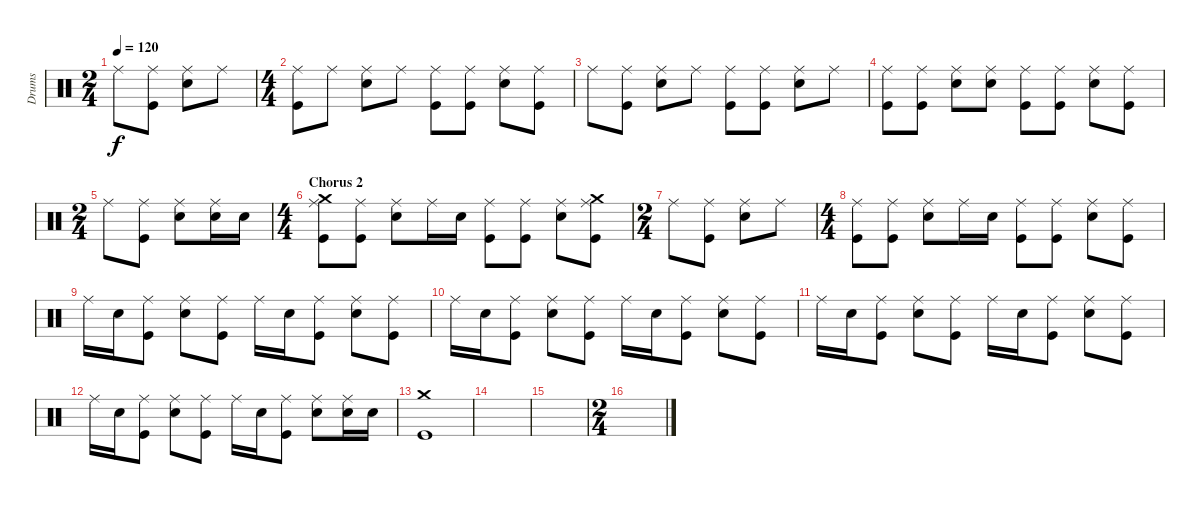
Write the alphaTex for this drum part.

\track ("Drums" "Drums") {instrument percussion}
\staff {score}
\articulation defaults
\ts (2 4)
\tempo 120
\clef neutral
\ks c "Ride (middle)".8{dy f}
("Ride (middle)" "Kick (hit)").8 ("Ride (middle)" "Snare (hit) 2").8 "Ride (middle)".8 |
\ts (4 4)
("Ride (middle)" "Kick (hit)").8 "Ride (middle)".8 ("Ride (middle)" "Snare (hit) 2").8 "Ride (middle)".8 ("Ride (middle)" "Kick (hit)").8 ("Ride (middle)" "Kick (hit)").8 ("Ride (middle)" "Snare (hit) 2").8 ("Ride (middle)" "Kick (hit)").8 |
"Ride (middle)".8 ("Ride (middle)" "Kick (hit)").8 ("Ride (middle)" "Snare (hit) 2").8 "Ride (middle)".8 ("Ride (middle)" "Kick (hit)").8 ("Ride (middle)" "Kick (hit)").8 ("Ride (middle)" "Snare (hit) 2").8 "Ride (middle)".8 |
("Ride (middle)" "Kick (hit)").8 ("Ride (middle)" "Kick (hit)").8 ("Ride (middle)" "Snare (hit) 2").8 ("Ride (middle)" "Snare (hit) 2").8 ("Ride (middle)" "Kick (hit)").8 ("Ride (middle)" "Kick (hit)").8 ("Ride (middle)" "Snare (hit) 2").8 ("Ride (middle)" "Kick (hit)").8 |
\ts (2 4)
"Ride (middle)".8 ("Ride (middle)" "Kick (hit)").8 ("Ride (middle)" "Snare (hit) 2").8 ("Ride (middle)" "Snare (hit) 2").16 "Snare (hit) 2".16 |
\ts (4 4)
\section ("" "Chorus 2")
("Ride (middle)" "Crash medium (hit)" "Kick (hit)").8 ("Ride (middle)" "Kick (hit)").8 ("Ride (middle)" "Snare (hit) 2").8 "Ride (middle)".16 "Snare (hit) 2".16 ("Ride (middle)" "Kick (hit)").8 ("Ride (middle)" "Kick (hit)").8 ("Ride (middle)" "Snare (hit) 2").8 ("Ride (middle)" "Crash medium (hit)" "Kick (hit)").8 |
\ts (2 4)
"Ride (middle)".8 ("Ride (middle)" "Kick (hit)").8 ("Ride (middle)" "Snare (hit) 2").8 "Ride (middle)".8 |
\ts (4 4)
("Ride (middle)" "Kick (hit)").8 ("Ride (middle)" "Kick (hit)").8 ("Ride (middle)" "Snare (hit) 2").8 "Ride (middle)".16 "Snare (hit) 2".16 ("Ride (middle)" "Kick (hit)").8 ("Ride (middle)" "Kick (hit)").8 ("Ride (middle)" "Snare (hit) 2").8 ("Ride (middle)" "Kick (hit)").8 |
"Ride (middle)".16 "Snare (hit) 2".16 ("Ride (middle)" "Kick (hit)").8 ("Ride (middle)" "Snare (hit) 2").8 ("Ride (middle)" "Kick (hit)").8 "Ride (middle)".16 "Snare (hit) 2".16 ("Ride (middle)" "Kick (hit)").8 ("Ride (middle)" "Snare (hit) 2").8 ("Ride (middle)" "Kick (hit)").8 |
"Ride (middle)".16 "Snare (hit) 2".16 ("Ride (middle)" "Kick (hit)").8 ("Ride (middle)" "Snare (hit) 2").8 ("Ride (middle)" "Kick (hit)").8 "Ride (middle)".16 "Snare (hit) 2".16 ("Ride (middle)" "Kick (hit)").8 ("Ride (middle)" "Snare (hit) 2").8 ("Ride (middle)" "Kick (hit)").8 |
"Ride (middle)".16 "Snare (hit) 2".16 ("Ride (middle)" "Kick (hit)").8 ("Ride (middle)" "Snare (hit) 2").8 ("Ride (middle)" "Kick (hit)").8 "Ride (middle)".16 "Snare (hit) 2".16 ("Ride (middle)" "Kick (hit)").8 ("Ride (middle)" "Snare (hit) 2").8 ("Ride (middle)" "Kick (hit)").8 |
"Ride (middle)".16 "Snare (hit) 2".16 ("Ride (middle)" "Kick (hit)").8 ("Ride (middle)" "Snare (hit) 2").8 ("Ride (middle)" "Kick (hit)").8 "Ride (middle)".16 "Snare (hit) 2".16 ("Ride (middle)" "Kick (hit)").8 ("Ride (middle)" "Snare (hit) 2").8 ("Ride (middle)" "Snare (hit) 2").16 "Snare (hit) 2".16 |
\section ("" "")
("Crash medium (hit)" "Kick (hit)").1 |
|
|
\ts (2 4)
